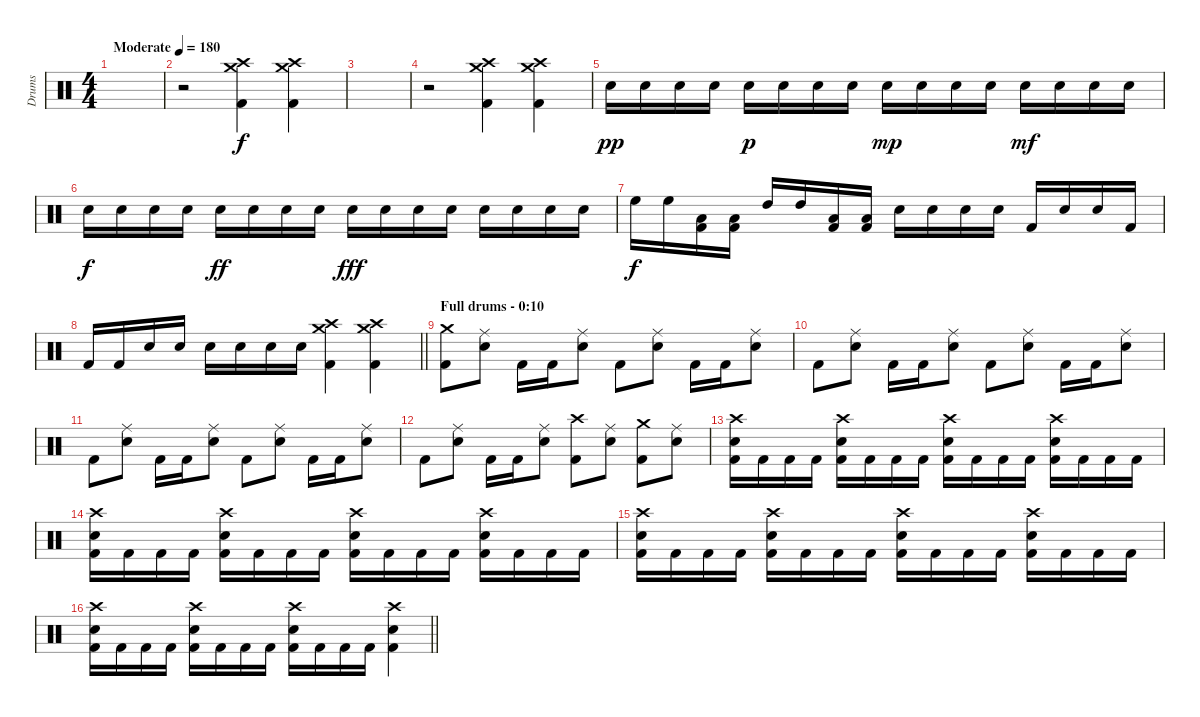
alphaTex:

\track ("Drums" "Drums") {instrument percussion}
\staff {score}
\articulation defaults
\ts (4 4)
\tempo (180 "Moderate")
\clef neutral
\ks c
|
r.2 ("Crash medium (hit)" "Crash high (hit)" "Kick (hit) 2").4 ("Crash medium (hit)" "Crash high (hit)" "Kick (hit) 2").4 |
|
r.2 ("Crash medium (hit)" "Crash high (hit)" "Kick (hit) 2").4 ("Crash medium (hit)" "Crash high (hit)" "Kick (hit) 2").4 |
"Electric Snare (hit)".16{dy pp} "Electric Snare (hit)".16 "Electric Snare (hit)".16 "Electric Snare (hit)".16 "Electric Snare (hit)".16{dy p} "Electric Snare (hit)".16 "Electric Snare (hit)".16 "Electric Snare (hit)".16 "Electric Snare (hit)".16{dy mp} "Electric Snare (hit)".16 "Electric Snare (hit)".16 "Electric Snare (hit)".16 "Electric Snare (hit)".16{dy mf} "Electric Snare (hit)".16 "Electric Snare (hit)".16 "Electric Snare (hit)".16 |
"Electric Snare (hit)".16{dy f} "Electric Snare (hit)".16 "Electric Snare (hit)".16 "Electric Snare (hit)".16 "Electric Snare (hit)".16{dy ff} "Electric Snare (hit)".16 "Electric Snare (hit)".16 "Electric Snare (hit)".16 "Electric Snare (hit)".16{dy fff} "Electric Snare (hit)".16 "Electric Snare (hit)".16 "Electric Snare (hit)".16 "Electric Snare (hit)".16 "Electric Snare (hit)".16 "Electric Snare (hit)".16 "Electric Snare (hit)".16 |
"High Floor Tom (hit)".16{dy f} "High Floor Tom (hit)".16 ("Low Tom (hit)" "Kick (hit) 2").16 ("Low Tom (hit)" "Kick (hit) 2").16 "High Tom (hit)".16 "High Tom (hit)".16 ("Low Tom (hit)" "Kick (hit) 2").16 ("Low Tom (hit)" "Kick (hit) 2").16 "Electric Snare (hit)".16 "Electric Snare (hit)".16 "Electric Snare (hit)".16 "Electric Snare (hit)".16 "Kick (hit) 2".16 "Electric Snare (hit)".16 "Electric Snare (hit)".16 "Kick (hit) 2".16 |
\barLineRight lightlight "Kick (hit) 2".16 "Kick (hit) 2".16 "Electric Snare (hit)".16 "Electric Snare (hit)".16 "Electric Snare (hit)".16 "Electric Snare (hit)".16 "Electric Snare (hit)".16 "Electric Snare (hit)".16
("Crash medium (hit)" "Crash high (hit)" "Kick (hit) 2").4 ("Crash medium (hit)" "Crash high (hit)" "Kick (hit) 2").4 |
\section ("" "Full drums - 0:10")
("Crash medium (hit)" "Kick (hit) 2").8 ("Ride (middle)" "Electric Snare (hit)").8 "Kick (hit) 2".16 "Kick (hit) 2".16 ("Ride (middle)" "Electric Snare (hit)").8 "Kick (hit) 2".8 ("Ride (middle)" "Electric Snare (hit)").8 "Kick (hit) 2".16 "Kick (hit) 2".16 ("Ride (middle)" "Electric Snare (hit)").8 |
"Kick (hit) 2".8 ("Ride (middle)" "Electric Snare (hit)").8 "Kick (hit) 2".16 "Kick (hit) 2".16 ("Ride (middle)" "Electric Snare (hit)").8 "Kick (hit) 2".8 ("Ride (middle)" "Electric Snare (hit)").8 "Kick (hit) 2".16 "Kick (hit) 2".16 ("Ride (middle)" "Electric Snare (hit)").8 |
"Kick (hit) 2".8 ("Ride (middle)" "Electric Snare (hit)").8 "Kick (hit) 2".16 "Kick (hit) 2".16 ("Ride (middle)" "Electric Snare (hit)").8 "Kick (hit) 2".8 ("Ride (middle)" "Electric Snare (hit)").8 "Kick (hit) 2".16 "Kick (hit) 2".16 ("Ride (middle)" "Electric Snare (hit)").8 |
"Kick (hit) 2".8 ("Ride (middle)" "Electric Snare (hit)").8 "Kick (hit) 2".16 "Kick (hit) 2".16 ("Ride (middle)" "Electric Snare (hit)").8 ("Crash high (hit)" "Kick (hit) 2").8 ("Ride (middle)" "Electric Snare (hit)").8 ("Crash medium (hit)" "Kick (hit) 2").8 ("Ride (middle)" "Electric Snare (hit)").8 |
("Crash high (hit)" "Electric Snare (hit)" "Kick (hit) 2").16 "Kick (hit) 2".16 "Kick (hit) 2".16 "Kick (hit) 2".16 ("Crash high (hit)" "Electric Snare (hit)" "Kick (hit) 2").16 "Kick (hit) 2".16 "Kick (hit) 2".16 "Kick (hit) 2".16 ("Crash high (hit)" "Electric Snare (hit)" "Kick (hit) 2").16 "Kick (hit) 2".16 "Kick (hit) 2".16 "Kick (hit) 2".16 ("Crash high (hit)" "Electric Snare (hit)" "Kick (hit) 2").16 "Kick (hit) 2".16 "Kick (hit) 2".16 "Kick (hit) 2".16 |
("Crash high (hit)" "Electric Snare (hit)" "Kick (hit) 2").16 "Kick (hit) 2".16 "Kick (hit) 2".16 "Kick (hit) 2".16 ("Crash high (hit)" "Electric Snare (hit)" "Kick (hit) 2").16 "Kick (hit) 2".16 "Kick (hit) 2".16 "Kick (hit) 2".16 ("Crash high (hit)" "Electric Snare (hit)" "Kick (hit) 2").16 "Kick (hit) 2".16 "Kick (hit) 2".16 "Kick (hit) 2".16 ("Crash high (hit)" "Electric Snare (hit)" "Kick (hit) 2").16 "Kick (hit) 2".16 "Kick (hit) 2".16 "Kick (hit) 2".16 |
("Crash high (hit)" "Electric Snare (hit)" "Kick (hit) 2").16 "Kick (hit) 2".16 "Kick (hit) 2".16 "Kick (hit) 2".16 ("Crash high (hit)" "Electric Snare (hit)" "Kick (hit) 2").16 "Kick (hit) 2".16 "Kick (hit) 2".16 "Kick (hit) 2".16 ("Crash high (hit)" "Electric Snare (hit)" "Kick (hit) 2").16 "Kick (hit) 2".16 "Kick (hit) 2".16 "Kick (hit) 2".16 ("Crash high (hit)" "Electric Snare (hit)" "Kick (hit) 2").16 "Kick (hit) 2".16 "Kick (hit) 2".16 "Kick (hit) 2".16 |
\barLineRight lightlight
("Crash high (hit)" "Electric Snare (hit)" "Kick (hit) 2").16 "Kick (hit) 2".16 "Kick (hit) 2".16 "Kick (hit) 2".16 ("Crash high (hit)" "Electric Snare (hit)" "Kick (hit) 2").16 "Kick (hit) 2".16 "Kick (hit) 2".16 "Kick (hit) 2".16 ("Crash high (hit)" "Electric Snare (hit)" "Kick (hit) 2").16 "Kick (hit) 2".16 "Kick (hit) 2".16 "Kick (hit) 2".16 ("Crash high (hit)" "Electric Snare (hit)" "Kick (hit) 2").4
